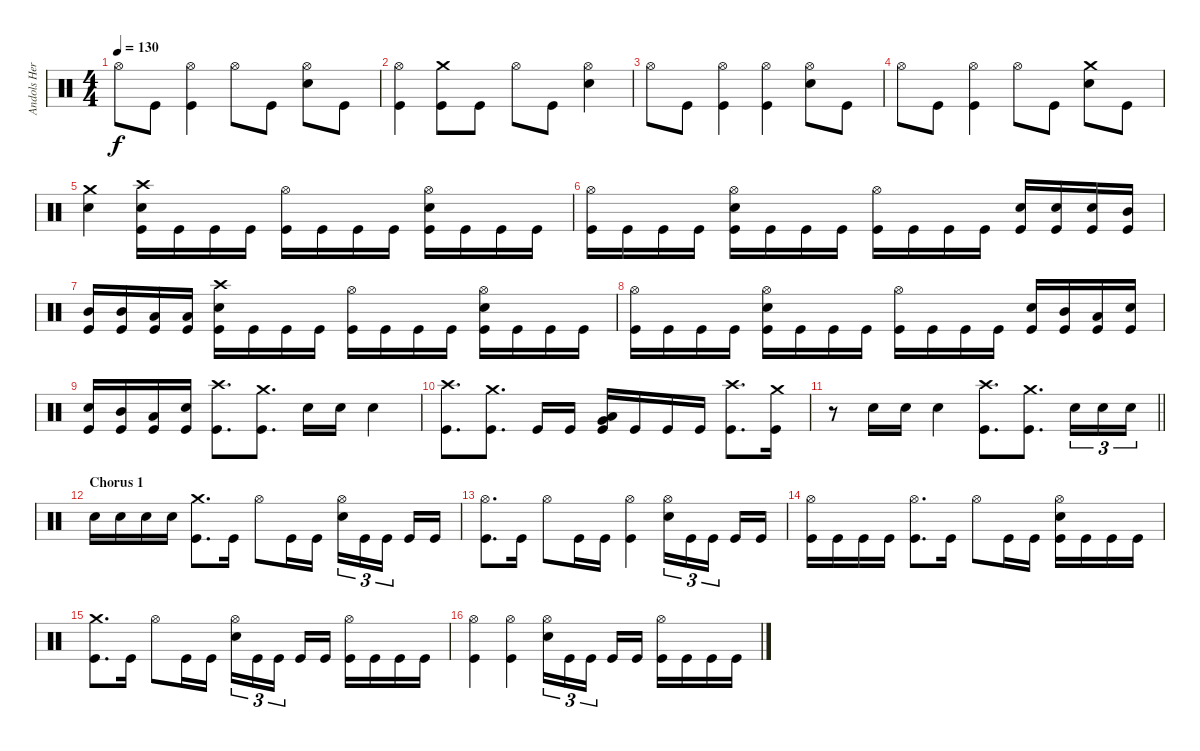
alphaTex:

\track ("Andols Herrick" "Andols Her") {instrument percussion}
\staff {score}
\articulation defaults
\ts (4 4)
\tempo 130
\clef neutral
\ks c "Hi-Hat (open)".8{dy f} "Kick (hit)".8
("Hi-Hat (open)" "Kick (hit)").4 "Hi-Hat (open)".8 "Kick (hit)".8 ("Hi-Hat (open)" "Electric Snare (hit)").8 "Kick (hit)".8 |
("Hi-Hat (open)" "Kick (hit)").4 ("Crash medium (hit)" "Kick (hit)").8 "Kick (hit)".8 "Hi-Hat (open)".8 "Kick (hit)".8 ("Hi-Hat (open)" "Electric Snare (hit)").4 |
"Hi-Hat (open)".8 "Kick (hit)".8 ("Hi-Hat (open)" "Kick (hit)").4 ("Hi-Hat (open)" "Kick (hit)").4 ("Hi-Hat (open)" "Electric Snare (hit)").8 "Kick (hit)".8 |
"Hi-Hat (open)".8 "Kick (hit)".8 ("Hi-Hat (open)" "Kick (hit)").4 "Hi-Hat (open)".8 "Kick (hit)".8 ("Crash medium (hit)" "Electric Snare (hit)").8 "Kick (hit)".8 |
("Crash medium (hit)" "Electric Snare (hit)").4 ("Crash high (hit)" "Electric Snare (hit)" "Kick (hit)").16 "Kick (hit)".16 "Kick (hit)".16 "Kick (hit)".16 ("Hi-Hat (open)" "Kick (hit)").16 "Kick (hit)".16 "Kick (hit)".16 "Kick (hit)".16 ("Hi-Hat (open)" "Electric Snare (hit)" "Kick (hit)").16 "Kick (hit)".16 "Kick (hit)".16 "Kick (hit)".16 |
("Hi-Hat (open)" "Kick (hit)").16 "Kick (hit)".16 "Kick (hit)".16 "Kick (hit)".16 ("Hi-Hat (open)" "Electric Snare (hit)" "Kick (hit)").16 "Kick (hit)".16 "Kick (hit)".16 "Kick (hit)".16 ("Hi-Hat (open)" "Kick (hit)").16 "Kick (hit)".16 "Kick (hit)".16 "Kick (hit)".16 ("Electric Snare (hit)" "Kick (hit)").16 ("Electric Snare (hit)" "Kick (hit)").16 ("Electric Snare (hit)" "Kick (hit)").16 ("Mid Tom (hit)" "Kick (hit)").16 |
("Mid Tom (hit)" "Kick (hit)").16 ("Mid Tom (hit)" "Kick (hit)").16 ("Low Tom (hit)" "Kick (hit)").16 ("Low Tom (hit)" "Kick (hit)").16 ("Crash high (hit)" "Electric Snare (hit)" "Kick (hit)").16 "Kick (hit)".16 "Kick (hit)".16 "Kick (hit)".16 ("Hi-Hat (open)" "Kick (hit)").16 "Kick (hit)".16 "Kick (hit)".16 "Kick (hit)".16 ("Hi-Hat (open)" "Electric Snare (hit)" "Kick (hit)").16 "Kick (hit)".16 "Kick (hit)".16 "Kick (hit)".16 |
("Hi-Hat (open)" "Kick (hit)").16 "Kick (hit)".16 "Kick (hit)".16 "Kick (hit)".16 ("Hi-Hat (open)" "Electric Snare (hit)" "Kick (hit)").16 "Kick (hit)".16 "Kick (hit)".16 "Kick (hit)".16 ("Hi-Hat (open)" "Kick (hit)").16 "Kick (hit)".16 "Kick (hit)".16 "Kick (hit)".16 ("Electric Snare (hit)" "Kick (hit)").16 ("Mid Tom (hit)" "Kick (hit)").16 ("Low Tom (hit)" "Kick (hit)").16 ("Electric Snare (hit)" "Kick (hit)").16 |
("Electric Snare (hit)" "Kick (hit)").16 ("Mid Tom (hit)" "Kick (hit)").16 ("Low Tom (hit)" "Kick (hit)").16 ("Electric Snare (hit)" "Kick (hit)").16 ("Crash high (hit)" "Kick (hit)").8{d} ("Crash medium (hit)" "Kick (hit)").8{d} "Electric Snare (hit)".16 "Electric Snare (hit)".16 "Electric Snare (hit)".4 |
("Crash high (hit)" "Kick (hit)").8{d} ("Crash medium (hit)" "Kick (hit)").8{d} "Kick (hit)".16 "Kick (hit)".16 ("Very Low Tom (hit)" "Low Floor Tom (hit)" "Kick (hit)").16 "Kick (hit)".16 "Kick (hit)".16 "Kick (hit)".16 ("Crash high (hit)" "Kick (hit)").8{d} ("Crash medium (hit)" "Kick (hit)").16 |
\barLineRight lightlight
r.8 "Electric Snare (hit)".16 "Electric Snare (hit)".16 "Electric Snare (hit)".4 ("Crash high (hit)" "Kick (hit)").8{d} ("Crash medium (hit)" "Kick (hit)").8{d} "Electric Snare (hit)".16{tu (3 2)} "Electric Snare (hit)".16{tu (3 2)} "Electric Snare (hit)".16{tu (3 2)} |
\section ("" "Chorus 1")
"Electric Snare (hit)".16 "Electric Snare (hit)".16 "Electric Snare (hit)".16 "Electric Snare (hit)".16 ("Crash medium (hit)" "Kick (hit)").8{d} "Kick (hit)".16 "Hi-Hat (open)".8 "Kick (hit)".16 "Kick (hit)".16 ("Hi-Hat (open)" "Electric Snare (hit)").16{tu (3 2)} "Kick (hit)".16{tu (3 2)} "Kick (hit)".16{tu (3 2) beam splitsecondary} "Kick (hit)".16 "Kick (hit)".16 |
("Hi-Hat (open)" "Kick (hit)").8{d} "Kick (hit)".16 "Hi-Hat (open)".8 "Kick (hit)".16 "Kick (hit)".16 ("Hi-Hat (open)" "Kick (hit)").4 ("Hi-Hat (open)" "Electric Snare (hit)").16{tu (3 2)} "Kick (hit)".16{tu (3 2)} "Kick (hit)".16{tu (3 2) beam splitsecondary} "Kick (hit)".16 "Kick (hit)".16 |
("Hi-Hat (open)" "Kick (hit)").16 "Kick (hit)".16 "Kick (hit)".16 "Kick (hit)".16 ("Hi-Hat (open)" "Kick (hit)").8{d} "Kick (hit)".16 "Hi-Hat (open)".8 "Kick (hit)".16 "Kick (hit)".16 ("Hi-Hat (open)" "Electric Snare (hit)" "Kick (hit)").16 "Kick (hit)".16 "Kick (hit)".16 "Kick (hit)".16 |
("Crash medium (hit)" "Kick (hit)").8{d} "Kick (hit)".16 "Hi-Hat (open)".8 "Kick (hit)".16 "Kick (hit)".16 ("Hi-Hat (open)" "Electric Snare (hit)").16{tu (3 2)} "Kick (hit)".16{tu (3 2)} "Kick (hit)".16{tu (3 2) beam splitsecondary} "Kick (hit)".16 "Kick (hit)".16 ("Hi-Hat (open)" "Kick (hit)").16 "Kick (hit)".16 "Kick (hit)".16 "Kick (hit)".16 |
("Hi-Hat (open)" "Kick (hit)").4 ("Hi-Hat (open)" "Kick (hit)").4 ("Hi-Hat (open)" "Electric Snare (hit)").16{tu (3 2)} "Kick (hit)".16{tu (3 2)} "Kick (hit)".16{tu (3 2) beam splitsecondary} "Kick (hit)".16 "Kick (hit)".16 ("Hi-Hat (open)" "Kick (hit)").16 "Kick (hit)".16 "Kick (hit)".16 "Kick (hit)".16
